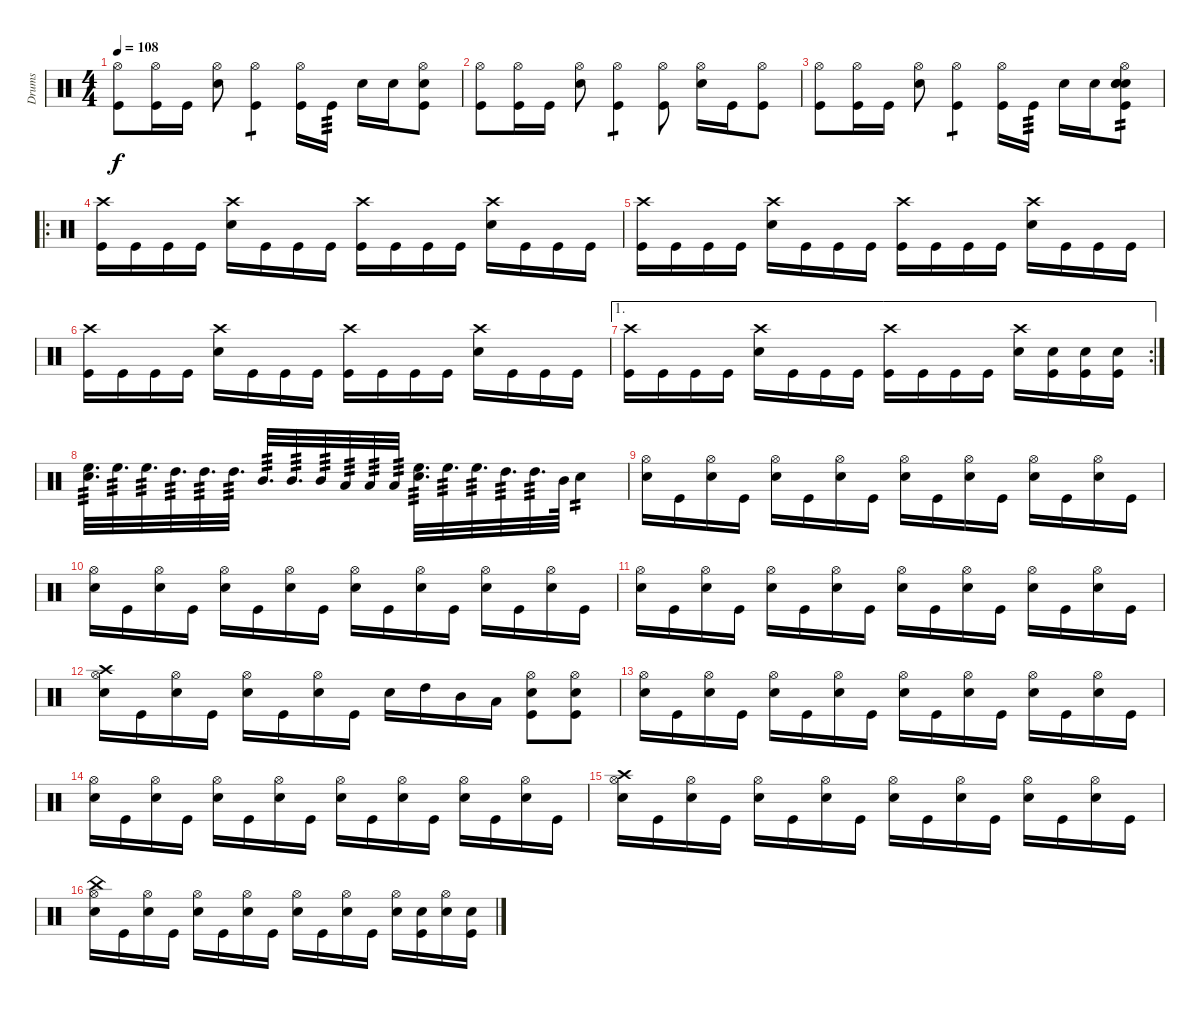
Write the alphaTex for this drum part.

\track ("Drums" "Drums") {instrument percussion}
\staff {score}
\articulation defaults
\ts (4 4)
\tempo 108
\clef neutral
\ks c
("Hi-Hat (open)" "Kick (hit)").8{dy f} ("Hi-Hat (open)" "Kick (hit)").16 "Kick (hit)".16 ("Hi-Hat (open)" "Snare (hit) 2").8 ("Hi-Hat (open)" "Kick (hit)").4{tp 1} ("Hi-Hat (open)" "Kick (hit)").16 "Kick (hit)".16{tp 3} "Snare (hit) 2".16 "Snare (hit) 2".16 ("Kick (hit)" "Hi-Hat (open)" "Snare (hit) 2").8 |
("Hi-Hat (open)" "Kick (hit)").8 ("Hi-Hat (open)" "Kick (hit)").16 "Kick (hit)".16 ("Hi-Hat (open)" "Snare (hit) 2").8 ("Hi-Hat (open)" "Kick (hit)").4{tp 1} ("Hi-Hat (open)" "Kick (hit)").8 ("Hi-Hat (open)" "Snare (hit) 2").16 "Kick (hit)".16 ("Hi-Hat (open)" "Kick (hit)").8 |
("Hi-Hat (open)" "Kick (hit)").8 ("Hi-Hat (open)" "Kick (hit)").16 "Kick (hit)".16 ("Hi-Hat (open)" "Snare (hit) 2").8 ("Hi-Hat (open)" "Kick (hit)").4{tp 1} ("Hi-Hat (open)" "Kick (hit)").16 "Kick (hit)".16{tp 3} "Snare (hit) 2".16 "Snare (hit) 2".16 ("Hi-Hat (open)" "Kick (hit)" "Snare (hit) 2" "Snare (hit) 2" "Snare (hit) 2").8{tp 2} |
\ro
("Crash high (hit)" "Kick (hit)").16 "Kick (hit)".16 "Kick (hit)".16 "Kick (hit)".16 ("Crash high (hit)" "Snare (hit) 2").16 "Kick (hit)".16 "Kick (hit)".16 "Kick (hit)".16 ("Crash high (hit)" "Kick (hit)").16 "Kick (hit)".16 "Kick (hit)".16 "Kick (hit)".16 ("Crash high (hit)" "Snare (hit) 2").16 "Kick (hit)".16 "Kick (hit)".16 "Kick (hit)".16 |
("Crash high (hit)" "Kick (hit)").16 "Kick (hit)".16 "Kick (hit)".16 "Kick (hit)".16 ("Crash high (hit)" "Snare (hit) 2").16 "Kick (hit)".16 "Kick (hit)".16 "Kick (hit)".16 ("Crash high (hit)" "Kick (hit)").16 "Kick (hit)".16 "Kick (hit)".16 "Kick (hit)".16 ("Crash high (hit)" "Snare (hit) 2").16 "Kick (hit)".16 "Kick (hit)".16 "Kick (hit)".16 |
("Crash high (hit)" "Kick (hit)").16 "Kick (hit)".16 "Kick (hit)".16 "Kick (hit)".16 ("Crash high (hit)" "Snare (hit) 2").16 "Kick (hit)".16 "Kick (hit)".16 "Kick (hit)".16 ("Crash high (hit)" "Kick (hit)").16 "Kick (hit)".16 "Kick (hit)".16 "Kick (hit)".16 ("Crash high (hit)" "Snare (hit) 2").16 "Kick (hit)".16 "Kick (hit)".16 "Kick (hit)".16 |
\ae 1
\rc 2
("Crash high (hit)" "Kick (hit)").16 "Kick (hit)".16 "Kick (hit)".16 "Kick (hit)".16 ("Crash high (hit)" "Snare (hit) 2").16 "Kick (hit)".16 "Kick (hit)".16 "Kick (hit)".16 ("Crash high (hit)" "Kick (hit)").16 "Kick (hit)".16 "Kick (hit)".16 "Kick (hit)".16 ("Crash high (hit)" "Snare (hit) 2").16 ("Snare (hit) 2" "Kick (hit)").16 ("Snare (hit) 2" "Kick (hit)").16 ("Snare (hit) 2" "Kick (hit)").16 |
("Snare (hit) 2" "High Floor Tom (hit)").32{d tp 3} "High Floor Tom (hit)".32{d tp 3} "High Floor Tom (hit)".32{d tp 3} "High Tom (hit)".32{d tp 3} "High Tom (hit)".32{d tp 3} "High Tom (hit)".32{d tp 3} "Mid Tom (hit)".32{d tp 3} "Mid Tom (hit)".32{d tp 3} "Mid Tom (hit)".32{tp 3} "Low Tom (hit)".32{tp 3} "Low Tom (hit)".32{tp 3} "Low Tom (hit)".32{tp 3} ("Snare (hit) 2" "High Floor Tom (hit)").32{d tp 3} "High Floor Tom (hit)".32{d tp 3} "High Floor Tom (hit)".32{d tp 3} "High Tom (hit)".32{d tp 3} "High Tom (hit)".32{d tp 3} "Mid Tom (hit)".64 "Snare (hit) 2".4{tp 2} |
("Hi-Hat (open)" "Snare (hit) 2").16 "Kick (hit)".16 ("Hi-Hat (open)" "Snare (hit) 2").16 "Kick (hit)".16 ("Hi-Hat (open)" "Snare (hit) 2").16 "Kick (hit)".16 ("Hi-Hat (open)" "Snare (hit) 2").16 "Kick (hit)".16 ("Hi-Hat (open)" "Snare (hit) 2").16 "Kick (hit)".16 ("Hi-Hat (open)" "Snare (hit) 2").16 "Kick (hit)".16 ("Hi-Hat (open)" "Snare (hit) 2").16 "Kick (hit)".16 ("Hi-Hat (open)" "Snare (hit) 2").16 "Kick (hit)".16 |
("Hi-Hat (open)" "Snare (hit) 2").16 "Kick (hit)".16 ("Hi-Hat (open)" "Snare (hit) 2").16 "Kick (hit)".16 ("Hi-Hat (open)" "Snare (hit) 2").16 "Kick (hit)".16 ("Hi-Hat (open)" "Snare (hit) 2").16 "Kick (hit)".16 ("Hi-Hat (open)" "Snare (hit) 2").16 "Kick (hit)".16 ("Hi-Hat (open)" "Snare (hit) 2").16 "Kick (hit)".16 ("Hi-Hat (open)" "Snare (hit) 2").16 "Kick (hit)".16 ("Hi-Hat (open)" "Snare (hit) 2").16 "Kick (hit)".16 |
("Hi-Hat (open)" "Snare (hit) 2").16 "Kick (hit)".16 ("Hi-Hat (open)" "Snare (hit) 2").16 "Kick (hit)".16 ("Hi-Hat (open)" "Snare (hit) 2").16 "Kick (hit)".16 ("Hi-Hat (open)" "Snare (hit) 2").16 "Kick (hit)".16 ("Hi-Hat (open)" "Snare (hit) 2").16 "Kick (hit)".16 ("Hi-Hat (open)" "Snare (hit) 2").16 "Kick (hit)".16 ("Hi-Hat (open)" "Snare (hit) 2").16 "Kick (hit)".16 ("Hi-Hat (open)" "Snare (hit) 2").16 "Kick (hit)".16 |
("Crash high (hit)" "Hi-Hat (open)" "Snare (hit) 2").16 "Kick (hit)".16 ("Hi-Hat (open)" "Snare (hit) 2").16 "Kick (hit)".16 ("Hi-Hat (open)" "Snare (hit) 2").16 "Kick (hit)".16 ("Hi-Hat (open)" "Snare (hit) 2").16 "Kick (hit)".16 "Snare (hit) 2".16 "High Tom (hit)".16 "Mid Tom (hit)".16 "Low Tom (hit)".16 ("Hi-Hat (open)" "Snare (hit) 2" "Kick (hit)").8 ("Hi-Hat (open)" "Snare (hit) 2" "Kick (hit)").8 |
("Hi-Hat (open)" "Snare (hit) 2").16 "Kick (hit)".16 ("Hi-Hat (open)" "Snare (hit) 2").16 "Kick (hit)".16 ("Hi-Hat (open)" "Snare (hit) 2").16 "Kick (hit)".16 ("Hi-Hat (open)" "Snare (hit) 2").16 "Kick (hit)".16 ("Hi-Hat (open)" "Snare (hit) 2").16 "Kick (hit)".16 ("Hi-Hat (open)" "Snare (hit) 2").16 "Kick (hit)".16 ("Hi-Hat (open)" "Snare (hit) 2").16 "Kick (hit)".16 ("Hi-Hat (open)" "Snare (hit) 2").16 "Kick (hit)".16 |
("Hi-Hat (open)" "Snare (hit) 2").16 "Kick (hit)".16 ("Hi-Hat (open)" "Snare (hit) 2").16 "Kick (hit)".16 ("Hi-Hat (open)" "Snare (hit) 2").16 "Kick (hit)".16 ("Hi-Hat (open)" "Snare (hit) 2").16 "Kick (hit)".16 ("Hi-Hat (open)" "Snare (hit) 2").16 "Kick (hit)".16 ("Hi-Hat (open)" "Snare (hit) 2").16 "Kick (hit)".16 ("Hi-Hat (open)" "Snare (hit) 2").16 "Kick (hit)".16 ("Hi-Hat (open)" "Snare (hit) 2").16 "Kick (hit)".16 |
("Crash high (hit)" "Hi-Hat (open)" "Snare (hit) 2").16 "Kick (hit)".16 ("Hi-Hat (open)" "Snare (hit) 2").16 "Kick (hit)".16 ("Hi-Hat (open)" "Snare (hit) 2").16 "Kick (hit)".16 ("Hi-Hat (open)" "Snare (hit) 2").16 "Kick (hit)".16 ("Hi-Hat (open)" "Snare (hit) 2").16 "Kick (hit)".16 ("Hi-Hat (open)" "Snare (hit) 2").16 "Kick (hit)".16 ("Hi-Hat (open)" "Snare (hit) 2").16 "Kick (hit)".16 ("Hi-Hat (open)" "Snare (hit) 2").16 "Kick (hit)".16 |
("China (hit)" "Hi-Hat (open)" "Snare (hit) 2").16 "Kick (hit)".16 ("Hi-Hat (open)" "Snare (hit) 2").16 "Kick (hit)".16 ("Hi-Hat (open)" "Snare (hit) 2").16 "Kick (hit)".16 ("Hi-Hat (open)" "Snare (hit) 2").16 "Kick (hit)".16 ("Hi-Hat (open)" "Snare (hit) 2").16 "Kick (hit)".16 ("Hi-Hat (open)" "Snare (hit) 2").16 "Kick (hit)".16 ("Hi-Hat (open)" "Snare (hit) 2").16 ("Snare (hit) 2" "Kick (hit)").16 ("Hi-Hat (open)" "Snare (hit) 2").16 ("Snare (hit) 2" "Kick (hit)").16
